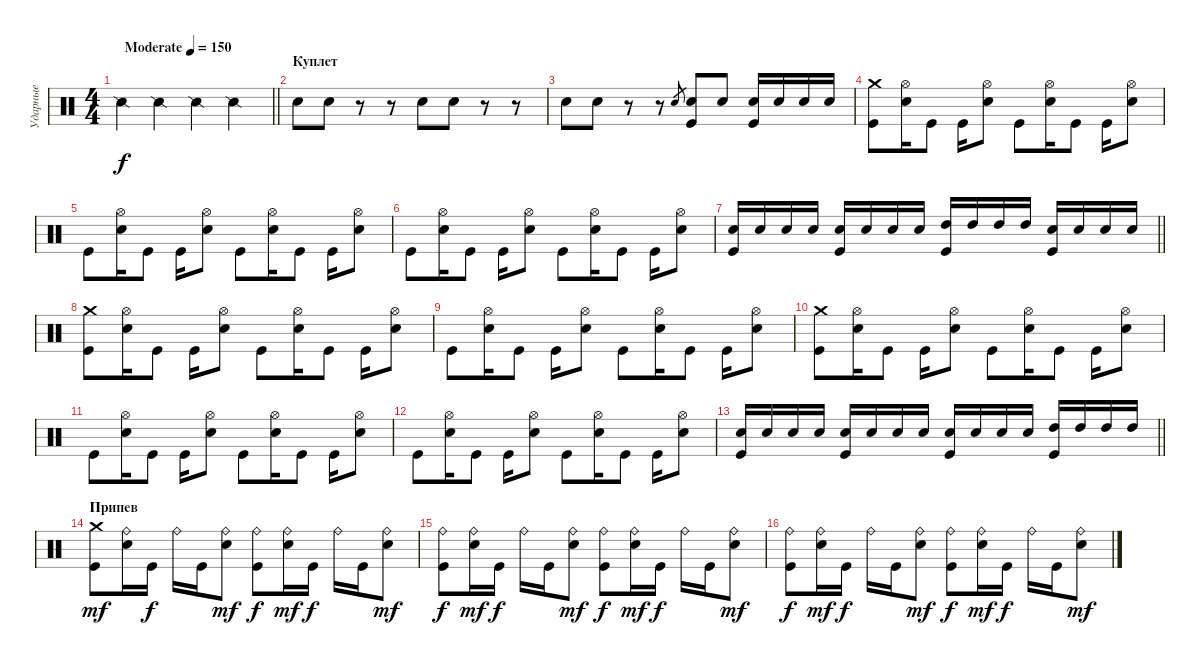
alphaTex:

\track ("Ударные" "Ударные") {instrument percussion}
\staff {score}
\articulation defaults
\ts (4 4)
\tempo (150 "Moderate")
\clef neutral
\barLineRight lightlight
\ks c "Snare (side stick) 2".4{dy f} "Snare (side stick) 2".4 "Snare (side stick) 2".4 "Snare (side stick) 2".4
|
\section ("" "Куплет")
"Electric Snare (hit)".8 "Electric Snare (hit)".8 r.8 r.8 "Electric Snare (hit)".8 "Electric Snare (hit)".8 r.8 r.8 |
"Electric Snare (hit)".8 "Electric Snare (hit)".8 r.8 r.8 "Electric Snare (hit)".8{gr} ("Electric Snare (hit)" "Kick (hit)").8 "Electric Snare (hit)".8 ("Electric Snare (hit)" "Kick (hit)").16 "Electric Snare (hit)".16 "Electric Snare (hit)".16 "Electric Snare (hit)".16 |
("Crash medium (hit)" "Kick (hit)").8 ("Hi-Hat (open)" "Electric Snare (hit)").16 "Kick (hit)".8 "Kick (hit)".16 ("Hi-Hat (open)" "Electric Snare (hit)").8 "Kick (hit)".8 ("Hi-Hat (open)" "Electric Snare (hit)").16 "Kick (hit)".8 "Kick (hit)".16 ("Hi-Hat (open)" "Electric Snare (hit)").8 |
"Kick (hit)".8 ("Hi-Hat (open)" "Electric Snare (hit)").16 "Kick (hit)".8 "Kick (hit)".16 ("Hi-Hat (open)" "Electric Snare (hit)").8 "Kick (hit)".8 ("Hi-Hat (open)" "Electric Snare (hit)").16 "Kick (hit)".8 "Kick (hit)".16 ("Hi-Hat (open)" "Electric Snare (hit)").8 |
"Kick (hit)".8 ("Hi-Hat (open)" "Electric Snare (hit)").16 "Kick (hit)".8 "Kick (hit)".16 ("Hi-Hat (open)" "Electric Snare (hit)").8 "Kick (hit)".8 ("Hi-Hat (open)" "Electric Snare (hit)").16 "Kick (hit)".8 "Kick (hit)".16 ("Hi-Hat (open)" "Electric Snare (hit)").8 |
\barLineRight lightlight
("Electric Snare (hit)" "Kick (hit)").16 "Electric Snare (hit)".16 "Electric Snare (hit)".16 "Electric Snare (hit)".16 ("Electric Snare (hit)" "Kick (hit)").16 "Electric Snare (hit)".16 "Electric Snare (hit)".16 "Electric Snare (hit)".16 ("High Tom (hit)" "Kick (hit)").16 "High Tom (hit)".16 "High Tom (hit)".16 "High Tom (hit)".16 ("Electric Snare (hit)" "Kick (hit)").16 "Electric Snare (hit)".16 "Electric Snare (hit)".16 "Electric Snare (hit)".16 |
\section ("" " ")
("Crash medium (hit)" "Kick (hit)").8 ("Hi-Hat (open)" "Electric Snare (hit)").16 "Kick (hit)".8 "Kick (hit)".16 ("Hi-Hat (open)" "Electric Snare (hit)").8 "Kick (hit)".8 ("Hi-Hat (open)" "Electric Snare (hit)").16 "Kick (hit)".8 "Kick (hit)".16 ("Hi-Hat (open)" "Electric Snare (hit)").8 |
"Kick (hit)".8 ("Hi-Hat (open)" "Electric Snare (hit)").16 "Kick (hit)".8 "Kick (hit)".16 ("Hi-Hat (open)" "Electric Snare (hit)").8 "Kick (hit)".8 ("Hi-Hat (open)" "Electric Snare (hit)").16 "Kick (hit)".8 "Kick (hit)".16 ("Hi-Hat (open)" "Electric Snare (hit)").8 |
("Crash medium (hit)" "Kick (hit)").8 ("Hi-Hat (open)" "Electric Snare (hit)").16 "Kick (hit)".8 "Kick (hit)".16 ("Hi-Hat (open)" "Electric Snare (hit)").8 "Kick (hit)".8 ("Hi-Hat (open)" "Electric Snare (hit)").16 "Kick (hit)".8 "Kick (hit)".16 ("Hi-Hat (open)" "Electric Snare (hit)").8 |
"Kick (hit)".8 ("Hi-Hat (open)" "Electric Snare (hit)").16 "Kick (hit)".8 "Kick (hit)".16 ("Hi-Hat (open)" "Electric Snare (hit)").8 "Kick (hit)".8 ("Hi-Hat (open)" "Electric Snare (hit)").16 "Kick (hit)".8 "Kick (hit)".16 ("Hi-Hat (open)" "Electric Snare (hit)").8 |
"Kick (hit)".8 ("Hi-Hat (open)" "Electric Snare (hit)").16 "Kick (hit)".8 "Kick (hit)".16 ("Hi-Hat (open)" "Electric Snare (hit)").8 "Kick (hit)".8 ("Hi-Hat (open)" "Electric Snare (hit)").16 "Kick (hit)".8 "Kick (hit)".16 ("Hi-Hat (open)" "Electric Snare (hit)").8 |
\barLineRight lightlight
("Electric Snare (hit)" "Kick (hit)").16 "Electric Snare (hit)".16 "Electric Snare (hit)".16 "Electric Snare (hit)".16 ("Electric Snare (hit)" "Kick (hit)").16 "Electric Snare (hit)".16 "Electric Snare (hit)".16 "Electric Snare (hit)".16 ("Electric Snare (hit)" "Kick (hit)").16 "Electric Snare (hit)".16 "Electric Snare (hit)".16 "Electric Snare (hit)".16 ("High Tom (hit)" "Kick (hit)").16 "High Tom (hit)".16 "High Tom (hit)".16 "High Tom (hit)".16 |
\section ("" "Припев")
("Crash medium (hit)" "Kick (hit)").8{dy mf} ("Ride (bell)" "Electric Snare (hit)").16 "Kick (hit)".16{dy f} "Ride (bell)".16 "Kick (hit)".16 ("Ride (bell)" "Electric Snare (hit)").8{dy mf} ("Ride (bell)" "Kick (hit)").8{dy f} ("Ride (bell)" "Electric Snare (hit)").16{dy mf} "Kick (hit)".16{dy f} "Ride (bell)".16 "Kick (hit)".16 ("Ride (bell)" "Electric Snare (hit)").8{dy mf} |
("Ride (bell)" "Kick (hit)").8{dy f} ("Ride (bell)" "Electric Snare (hit)").16{dy mf} "Kick (hit)".16{dy f} "Ride (bell)".16 "Kick (hit)".16 ("Ride (bell)" "Electric Snare (hit)").8{dy mf} ("Ride (bell)" "Kick (hit)").8{dy f} ("Ride (bell)" "Electric Snare (hit)").16{dy mf} "Kick (hit)".16{dy f} "Ride (bell)".16 "Kick (hit)".16 ("Ride (bell)" "Electric Snare (hit)").8{dy mf} |
("Ride (bell)" "Kick (hit)").8{dy f} ("Ride (bell)" "Electric Snare (hit)").16{dy mf} "Kick (hit)".16{dy f} "Ride (bell)".16 "Kick (hit)".16 ("Ride (bell)" "Electric Snare (hit)").8{dy mf} ("Ride (bell)" "Kick (hit)").8{dy f} ("Ride (bell)" "Electric Snare (hit)").16{dy mf} "Kick (hit)".16{dy f} "Ride (bell)".16 "Kick (hit)".16 ("Ride (bell)" "Electric Snare (hit)").8{dy mf}
